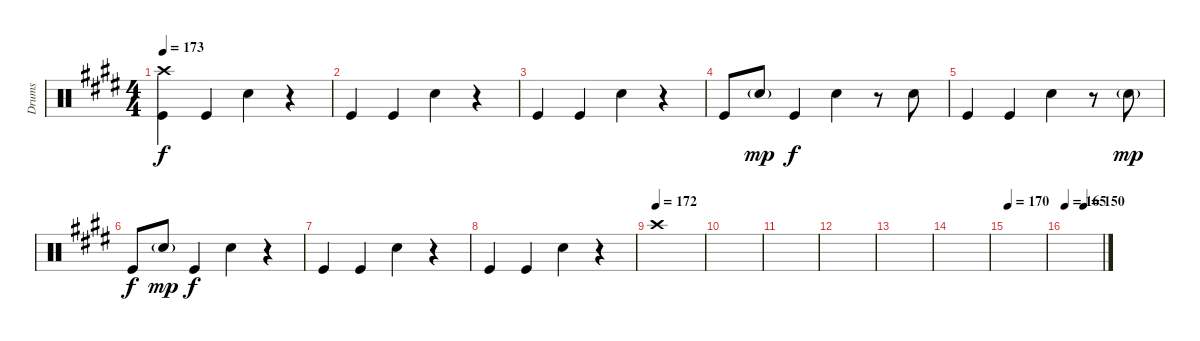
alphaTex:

\track ("Drums" "Drums") {instrument percussion}
\staff {score}
\articulation defaults
\ts (4 4)
\tempo 173
\clef neutral
\ks e
("Crash high (hit)" "Kick (hit)").4{dy f} "Kick (hit)".4 "Snare (hit) 2".4 r.4 |
"Kick (hit)".4 "Kick (hit)".4 "Snare (hit) 2".4 r.4 |
"Kick (hit)".4 "Kick (hit)".4 "Snare (hit) 2".4 r.4 |
"Kick (hit)".8 "Snare (hit) 2"{g}.8{dy mp} "Kick (hit)".4{dy f} "Snare (hit) 2".4 r.8 "Snare (hit) 2".8 |
"Kick (hit)".4 "Kick (hit)".4 "Snare (hit) 2".4 r.8 "Snare (hit) 2"{g}.8{dy mp} |
"Kick (hit)".8{dy f} "Snare (hit) 2"{g}.8{dy mp} "Kick (hit)".4{dy f} "Snare (hit) 2".4 r.4 |
"Kick (hit)".4 "Kick (hit)".4 "Snare (hit) 2".4 r.4 |
"Kick (hit)".4 "Kick (hit)".4 "Snare (hit) 2".4 r.4 |
\tempo (172)
"Crash high (hit)".1 |
|
|
|
|
|
\tempo 170
|
\tempo 165
\tempo (150 0.5)
